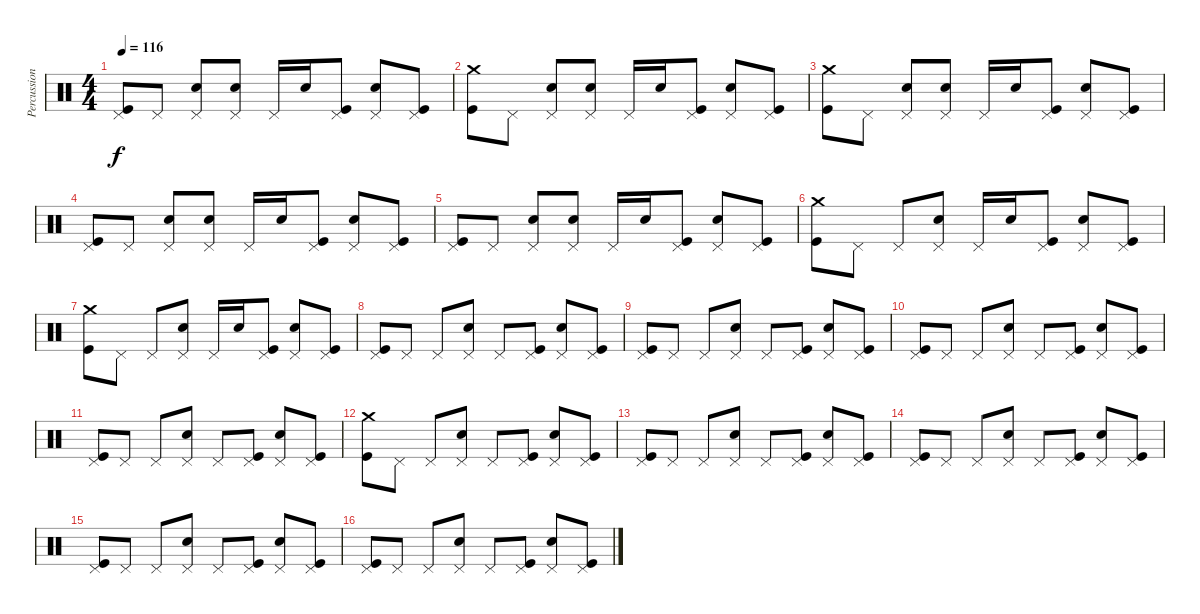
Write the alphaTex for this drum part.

\track ("Percussions" "Percussion") {instrument percussion}
\staff {score}
\articulation defaults
\ts (4 4)
\tempo 116
\clef neutral
\ks c
("Pedal Hi-Hat (hit)" "Kick (hit)").8{dy f} "Pedal Hi-Hat (hit)".8 ("Pedal Hi-Hat (hit)" "Snare (hit) 2").8 ("Pedal Hi-Hat (hit)" "Snare (hit) 2").8 "Pedal Hi-Hat (hit)".16 "Snare (hit) 2".16 ("Pedal Hi-Hat (hit)" "Kick (hit)").8 ("Pedal Hi-Hat (hit)" "Snare (hit) 2").8 ("Pedal Hi-Hat (hit)" "Kick (hit)").8 |
("Crash medium (hit)" "Kick (hit)").8 "Pedal Hi-Hat (hit)".8 ("Pedal Hi-Hat (hit)" "Snare (hit) 2").8 ("Pedal Hi-Hat (hit)" "Snare (hit) 2").8 "Pedal Hi-Hat (hit)".16 "Snare (hit) 2".16 ("Pedal Hi-Hat (hit)" "Kick (hit)").8 ("Pedal Hi-Hat (hit)" "Snare (hit) 2").8 ("Pedal Hi-Hat (hit)" "Kick (hit)").8 |
("Crash medium (hit)" "Kick (hit)").8 "Pedal Hi-Hat (hit)".8 ("Pedal Hi-Hat (hit)" "Snare (hit) 2").8 ("Pedal Hi-Hat (hit)" "Snare (hit) 2").8 "Pedal Hi-Hat (hit)".16 "Snare (hit) 2".16 ("Pedal Hi-Hat (hit)" "Kick (hit)").8 ("Pedal Hi-Hat (hit)" "Snare (hit) 2").8 ("Pedal Hi-Hat (hit)" "Kick (hit)").8 |
("Pedal Hi-Hat (hit)" "Kick (hit)").8 "Pedal Hi-Hat (hit)".8 ("Pedal Hi-Hat (hit)" "Snare (hit) 2").8 ("Pedal Hi-Hat (hit)" "Snare (hit) 2").8 "Pedal Hi-Hat (hit)".16 "Snare (hit) 2".16 ("Pedal Hi-Hat (hit)" "Kick (hit)").8 ("Pedal Hi-Hat (hit)" "Snare (hit) 2").8 ("Pedal Hi-Hat (hit)" "Kick (hit)").8 |
("Pedal Hi-Hat (hit)" "Kick (hit)").8 "Pedal Hi-Hat (hit)".8 ("Pedal Hi-Hat (hit)" "Snare (hit) 2").8 ("Pedal Hi-Hat (hit)" "Snare (hit) 2").8 "Pedal Hi-Hat (hit)".16 "Snare (hit) 2".16 ("Pedal Hi-Hat (hit)" "Kick (hit)").8 ("Pedal Hi-Hat (hit)" "Snare (hit) 2").8 ("Pedal Hi-Hat (hit)" "Kick (hit)").8 |
("Crash medium (hit)" "Kick (hit)").8 "Pedal Hi-Hat (hit)".8 "Pedal Hi-Hat (hit)".8 ("Pedal Hi-Hat (hit)" "Snare (hit) 2").8 "Pedal Hi-Hat (hit)".16 "Snare (hit) 2".16 ("Pedal Hi-Hat (hit)" "Kick (hit)").8 ("Pedal Hi-Hat (hit)" "Snare (hit) 2").8 ("Pedal Hi-Hat (hit)" "Kick (hit)").8 |
("Crash medium (hit)" "Kick (hit)").8 "Pedal Hi-Hat (hit)".8 "Pedal Hi-Hat (hit)".8 ("Pedal Hi-Hat (hit)" "Snare (hit) 2").8 "Pedal Hi-Hat (hit)".16 "Snare (hit) 2".16 ("Pedal Hi-Hat (hit)" "Kick (hit)").8 ("Pedal Hi-Hat (hit)" "Snare (hit) 2").8 ("Pedal Hi-Hat (hit)" "Kick (hit)").8 |
("Pedal Hi-Hat (hit)" "Kick (hit)").8 "Pedal Hi-Hat (hit)".8 "Pedal Hi-Hat (hit)".8 ("Pedal Hi-Hat (hit)" "Snare (hit) 2").8 "Pedal Hi-Hat (hit)".8 ("Pedal Hi-Hat (hit)" "Kick (hit)").8 ("Pedal Hi-Hat (hit)" "Snare (hit) 2").8 ("Pedal Hi-Hat (hit)" "Kick (hit)").8 |
("Pedal Hi-Hat (hit)" "Kick (hit)").8 "Pedal Hi-Hat (hit)".8 "Pedal Hi-Hat (hit)".8 ("Pedal Hi-Hat (hit)" "Snare (hit) 2").8 "Pedal Hi-Hat (hit)".8 ("Pedal Hi-Hat (hit)" "Kick (hit)").8 ("Pedal Hi-Hat (hit)" "Snare (hit) 2").8 ("Pedal Hi-Hat (hit)" "Kick (hit)").8 |
("Pedal Hi-Hat (hit)" "Kick (hit)").8 "Pedal Hi-Hat (hit)".8 "Pedal Hi-Hat (hit)".8 ("Pedal Hi-Hat (hit)" "Snare (hit) 2").8 "Pedal Hi-Hat (hit)".8 ("Pedal Hi-Hat (hit)" "Kick (hit)").8 ("Pedal Hi-Hat (hit)" "Snare (hit) 2").8 ("Pedal Hi-Hat (hit)" "Kick (hit)").8 |
("Pedal Hi-Hat (hit)" "Kick (hit)").8 "Pedal Hi-Hat (hit)".8 "Pedal Hi-Hat (hit)".8 ("Pedal Hi-Hat (hit)" "Snare (hit) 2").8 "Pedal Hi-Hat (hit)".8 ("Pedal Hi-Hat (hit)" "Kick (hit)").8 ("Pedal Hi-Hat (hit)" "Snare (hit) 2").8 ("Pedal Hi-Hat (hit)" "Kick (hit)").8 |
("Crash medium (hit)" "Kick (hit)").8 "Pedal Hi-Hat (hit)".8 "Pedal Hi-Hat (hit)".8 ("Pedal Hi-Hat (hit)" "Snare (hit) 2").8 "Pedal Hi-Hat (hit)".8 ("Pedal Hi-Hat (hit)" "Kick (hit)").8 ("Pedal Hi-Hat (hit)" "Snare (hit) 2").8 ("Pedal Hi-Hat (hit)" "Kick (hit)").8 |
("Pedal Hi-Hat (hit)" "Kick (hit)").8 "Pedal Hi-Hat (hit)".8 "Pedal Hi-Hat (hit)".8 ("Pedal Hi-Hat (hit)" "Snare (hit) 2").8 "Pedal Hi-Hat (hit)".8 ("Pedal Hi-Hat (hit)" "Kick (hit)").8 ("Pedal Hi-Hat (hit)" "Snare (hit) 2").8 ("Pedal Hi-Hat (hit)" "Kick (hit)").8 |
("Pedal Hi-Hat (hit)" "Kick (hit)").8 "Pedal Hi-Hat (hit)".8 "Pedal Hi-Hat (hit)".8 ("Pedal Hi-Hat (hit)" "Snare (hit) 2").8 "Pedal Hi-Hat (hit)".8 ("Pedal Hi-Hat (hit)" "Kick (hit)").8 ("Pedal Hi-Hat (hit)" "Snare (hit) 2").8 ("Pedal Hi-Hat (hit)" "Kick (hit)").8 |
("Pedal Hi-Hat (hit)" "Kick (hit)").8 "Pedal Hi-Hat (hit)".8 "Pedal Hi-Hat (hit)".8 ("Pedal Hi-Hat (hit)" "Snare (hit) 2").8 "Pedal Hi-Hat (hit)".8 ("Pedal Hi-Hat (hit)" "Kick (hit)").8 ("Pedal Hi-Hat (hit)" "Snare (hit) 2").8 ("Pedal Hi-Hat (hit)" "Kick (hit)").8 |
("Pedal Hi-Hat (hit)" "Kick (hit)").8 "Pedal Hi-Hat (hit)".8 "Pedal Hi-Hat (hit)".8 ("Pedal Hi-Hat (hit)" "Snare (hit) 2").8 "Pedal Hi-Hat (hit)".8 ("Pedal Hi-Hat (hit)" "Kick (hit)").8 ("Pedal Hi-Hat (hit)" "Snare (hit) 2").8 ("Pedal Hi-Hat (hit)" "Kick (hit)").8
